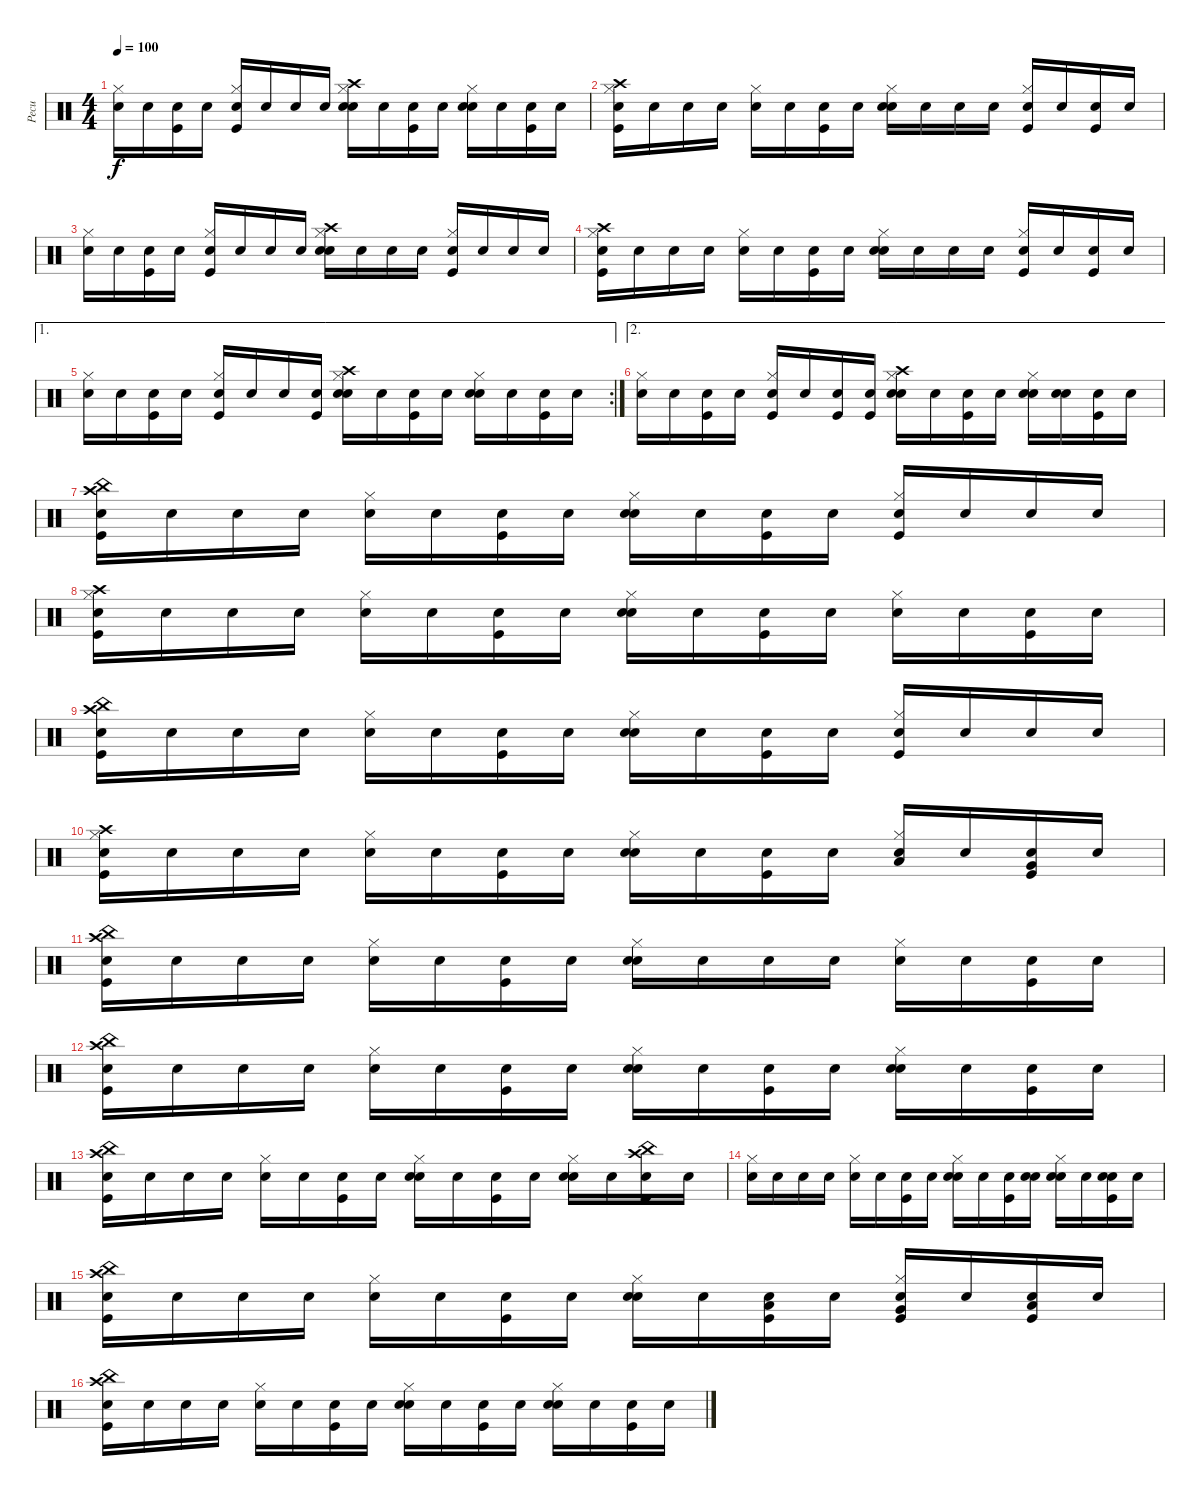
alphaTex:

\track ("Pecu" "Pecu") {instrument percussion}
\staff {score}
\articulation defaults
\ts (4 4)
\tempo 100
\clef neutral
\ks c
("Snare (hit)" "Hi-Hat (closed)").16{dy f} "Snare (hit)".16 ("Snare (hit)" "Kick (hit)").16 "Snare (hit)".16 ("Snare (hit)" "Hi-Hat (closed)" "Kick (hit)").16 "Snare (hit)".16 "Snare (hit)".16 "Snare (hit)".16 ("Snare (hit)" "Hi-Hat (closed)" "Snare (hit) 2" "Crash high (hit)").16 "Snare (hit)".16 ("Snare (hit)" "Kick (hit)").16 "Snare (hit)".16 ("Snare (hit)" "Hi-Hat (closed)" "Snare (hit) 2").16 "Snare (hit)".16 ("Snare (hit)" "Kick (hit)").16 "Snare (hit)".16 |
("Snare (hit)" "Hi-Hat (closed)" "Crash high (hit)" "Kick (hit)").16 "Snare (hit)".16 "Snare (hit)".16 "Snare (hit)".16 ("Snare (hit)" "Hi-Hat (closed)").16 "Snare (hit)".16 ("Snare (hit)" "Kick (hit)").16 "Snare (hit)".16 ("Snare (hit)" "Hi-Hat (closed)" "Snare (hit) 2").16 "Snare (hit)".16 "Snare (hit)".16 "Snare (hit)".16 ("Snare (hit)" "Hi-Hat (closed)" "Kick (hit)").16 "Snare (hit)".16 ("Snare (hit)" "Kick (hit)").16 "Snare (hit)".16 |
("Snare (hit)" "Hi-Hat (closed)").16 "Snare (hit)".16 ("Snare (hit)" "Kick (hit)").16 "Snare (hit)".16 ("Snare (hit)" "Hi-Hat (closed)" "Kick (hit)").16 "Snare (hit)".16 "Snare (hit)".16 "Snare (hit)".16 ("Snare (hit)" "Hi-Hat (closed)" "Snare (hit) 2" "Crash high (hit)").16 "Snare (hit)".16 "Snare (hit)".16 "Snare (hit)".16 ("Snare (hit)" "Hi-Hat (closed)" "Kick (hit)").16 "Snare (hit)".16 "Snare (hit)".16 "Snare (hit)".16 |
("Snare (hit)" "Hi-Hat (closed)" "Crash high (hit)" "Kick (hit)").16 "Snare (hit)".16 "Snare (hit)".16 "Snare (hit)".16 ("Snare (hit)" "Hi-Hat (closed)").16 "Snare (hit)".16 ("Snare (hit)" "Kick (hit)").16 "Snare (hit)".16 ("Snare (hit)" "Hi-Hat (closed)" "Snare (hit) 2").16 "Snare (hit)".16 "Snare (hit)".16 "Snare (hit)".16 ("Snare (hit)" "Hi-Hat (closed)" "Kick (hit)").16 "Snare (hit)".16 ("Snare (hit)" "Kick (hit)").16 "Snare (hit)".16 |
\ae 1
\rc 2
("Snare (hit)" "Hi-Hat (closed)").16 "Snare (hit)".16 ("Snare (hit)" "Kick (hit)").16 "Snare (hit)".16 ("Snare (hit)" "Hi-Hat (closed)" "Kick (hit)").16 "Snare (hit)".16 "Snare (hit)".16 ("Snare (hit)" "Kick (hit)").16 ("Snare (hit)" "Hi-Hat (closed)" "Snare (hit) 2" "Crash high (hit)").16 "Snare (hit)".16 ("Snare (hit)" "Kick (hit)").16 "Snare (hit)".16 ("Snare (hit)" "Hi-Hat (closed)" "Snare (hit) 2").16 "Snare (hit)".16 ("Snare (hit)" "Kick (hit)").16 "Snare (hit)".16 |
\ae 2
("Snare (hit)" "Hi-Hat (closed)").16 "Snare (hit)".16 ("Snare (hit)" "Kick (hit)").16 "Snare (hit)".16 ("Snare (hit)" "Hi-Hat (closed)" "Kick (hit)").16 "Snare (hit)".16 ("Snare (hit)" "Kick (hit)").16 ("Snare (hit)" "Kick (hit)").16 ("Snare (hit)" "Hi-Hat (closed)" "Snare (hit) 2" "Crash high (hit)").16 "Snare (hit)".16 ("Snare (hit)" "Kick (hit)").16 "Snare (hit)".16 ("Snare (hit)" "Hi-Hat (closed)" "Snare (hit) 2").16 ("Snare (hit)" "Snare (hit) 2").16 ("Snare (hit)" "Kick (hit)").16 "Snare (hit)".16 |
("Snare (hit)" "Crash high (hit)" "China (hit)" "Kick (hit)").16 "Snare (hit)".16 "Snare (hit)".16 "Snare (hit)".16 ("Snare (hit)" "Hi-Hat (closed)").16 "Snare (hit)".16 ("Snare (hit)" "Kick (hit)").16 "Snare (hit)".16 ("Snare (hit)" "Hi-Hat (closed)" "Snare (hit) 2").16 "Snare (hit)".16 ("Snare (hit)" "Kick (hit)").16 "Snare (hit)".16 ("Snare (hit)" "Hi-Hat (closed)" "Kick (hit)").16 "Snare (hit)".16 "Snare (hit)".16 "Snare (hit)".16 |
("Snare (hit)" "Hi-Hat (closed)" "Crash high (hit)" "Kick (hit)").16 "Snare (hit)".16 "Snare (hit)".16 "Snare (hit)".16 ("Snare (hit)" "Hi-Hat (closed)").16 "Snare (hit)".16 ("Snare (hit)" "Kick (hit)").16 "Snare (hit)".16 ("Snare (hit)" "Hi-Hat (closed)" "Snare (hit) 2").16 "Snare (hit)".16 ("Snare (hit)" "Kick (hit)").16 "Snare (hit)".16 ("Snare (hit)" "Hi-Hat (closed)").16 "Snare (hit)".16 ("Snare (hit)" "Kick (hit)").16 "Snare (hit)".16 |
("Snare (hit)" "Crash high (hit)" "China (hit)" "Kick (hit)").16 "Snare (hit)".16 "Snare (hit)".16 "Snare (hit)".16 ("Snare (hit)" "Hi-Hat (closed)").16 "Snare (hit)".16 ("Snare (hit)" "Kick (hit)").16 "Snare (hit)".16 ("Snare (hit)" "Hi-Hat (closed)" "Snare (hit) 2").16 "Snare (hit)".16 ("Snare (hit)" "Kick (hit)").16 "Snare (hit)".16 ("Snare (hit)" "Hi-Hat (closed)" "Kick (hit)").16 "Snare (hit)".16 "Snare (hit)".16 "Snare (hit)".16 |
("Snare (hit)" "Hi-Hat (closed)" "Crash high (hit)" "Kick (hit)").16 "Snare (hit)".16 "Snare (hit)".16 "Snare (hit)".16 ("Snare (hit)" "Hi-Hat (closed)").16 "Snare (hit)".16 ("Snare (hit)" "Kick (hit)").16 "Snare (hit)".16 ("Snare (hit)" "Hi-Hat (closed)" "Snare (hit) 2").16 "Snare (hit)".16 ("Snare (hit)" "Kick (hit)").16 "Snare (hit)".16 ("Snare (hit)" "Hi-Hat (closed)" "Low Tom (hit)").16 "Snare (hit)".16 ("Snare (hit)" "Very Low Tom (hit)" "Kick (hit)").16 "Snare (hit)".16 |
("Snare (hit)" "Crash high (hit)" "China (hit)" "Kick (hit)").16 "Snare (hit)".16 "Snare (hit)".16 "Snare (hit)".16 ("Snare (hit)" "Hi-Hat (closed)").16 "Snare (hit)".16 ("Snare (hit)" "Kick (hit)").16 "Snare (hit)".16 ("Snare (hit)" "Hi-Hat (closed)" "Snare (hit) 2").16 "Snare (hit)".16 "Snare (hit)".16 "Snare (hit)".16 ("Snare (hit)" "Hi-Hat (closed)").16 "Snare (hit)".16 ("Snare (hit)" "Kick (hit)").16 "Snare (hit)".16 |
("Snare (hit)" "Crash high (hit)" "China (hit)" "Kick (hit)").16 "Snare (hit)".16 "Snare (hit)".16 "Snare (hit)".16 ("Snare (hit)" "Hi-Hat (closed)").16 "Snare (hit)".16 ("Snare (hit)" "Kick (hit)").16 "Snare (hit)".16 ("Snare (hit)" "Hi-Hat (closed)" "Snare (hit) 2").16 "Snare (hit)".16 ("Snare (hit)" "Kick (hit)").16 "Snare (hit)".16 ("Snare (hit)" "Hi-Hat (closed)" "Snare (hit) 2").16 "Snare (hit)".16 ("Snare (hit)" "Kick (hit)").16 "Snare (hit)".16 |
("Snare (hit)" "Crash high (hit)" "China (hit)" "Kick (hit)").16 "Snare (hit)".16 "Snare (hit)".16 "Snare (hit)".16 ("Snare (hit)" "Hi-Hat (closed)").16 "Snare (hit)".16 ("Snare (hit)" "Kick (hit)").16 "Snare (hit)".16 ("Snare (hit)" "Hi-Hat (closed)" "Snare (hit) 2").16 "Snare (hit)".16 ("Snare (hit)" "Kick (hit)").16 "Snare (hit)".16 ("Snare (hit)" "Hi-Hat (closed)" "Snare (hit) 2").16 "Snare (hit)".16 ("Snare (hit)" "Crash high (hit)" "China (hit)" "Kick (hit)").16 "Snare (hit)".16 |
("Snare (hit)" "Hi-Hat (closed)").16 "Snare (hit)".16 "Snare (hit)".16 "Snare (hit)".16 ("Snare (hit)" "Hi-Hat (closed)").16 "Snare (hit)".16 ("Snare (hit)" "Kick (hit)").16 "Snare (hit)".16 ("Snare (hit)" "Hi-Hat (closed)" "Snare (hit) 2").16 "Snare (hit)".16 ("Snare (hit)" "Kick (hit)").16 ("Snare (hit)" "Snare (hit) 2").16 ("Snare (hit)" "Hi-Hat (closed)" "Snare (hit) 2").16 "Snare (hit)".16 ("Snare (hit)" "Snare (hit) 2" "Kick (hit)").16 "Snare (hit)".16 |
("Snare (hit)" "Crash high (hit)" "China (hit)" "Kick (hit)").16 "Snare (hit)".16 "Snare (hit)".16 "Snare (hit)".16 ("Snare (hit)" "Hi-Hat (closed)").16 "Snare (hit)".16 ("Snare (hit)" "Kick (hit)").16 "Snare (hit)".16 ("Snare (hit)" "Hi-Hat (closed)" "Snare (hit) 2").16 "Snare (hit)".16 ("Snare (hit)" "Low Tom (hit)" "Kick (hit)").16 "Snare (hit)".16 ("Snare (hit)" "Hi-Hat (closed)" "Very Low Tom (hit)" "Kick (hit)").16 "Snare (hit)".16 ("Snare (hit)" "Low Floor Tom (hit)" "Kick (hit)").16 "Snare (hit)".16 |
("Snare (hit)" "Crash high (hit)" "China (hit)" "Kick (hit)").16 "Snare (hit)".16 "Snare (hit)".16 "Snare (hit)".16 ("Snare (hit)" "Hi-Hat (closed)").16 "Snare (hit)".16 ("Snare (hit)" "Kick (hit)").16 "Snare (hit)".16 ("Snare (hit)" "Hi-Hat (closed)" "Snare (hit) 2").16 "Snare (hit)".16 ("Snare (hit)" "Kick (hit)").16 "Snare (hit)".16 ("Snare (hit)" "Hi-Hat (closed)" "Snare (hit) 2").16 "Snare (hit)".16 ("Snare (hit)" "Kick (hit)").16 "Snare (hit)".16
